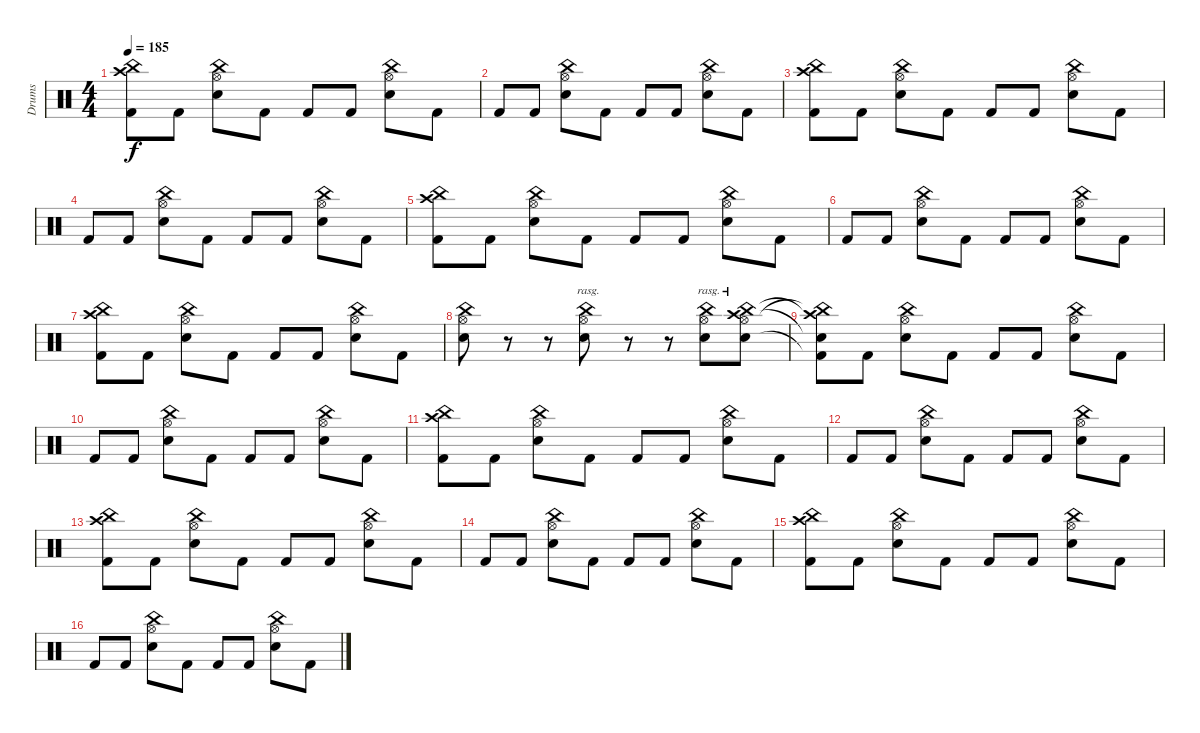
\track ("Drums" "Drums") {instrument percussion}
\staff {score}
\articulation defaults
\ts (4 4)
\tempo 185
\clef neutral
\ks c
("Crash high (hit)" "China (hit)" "Kick (hit) 2").8{dy f} "Kick (hit) 2".8 ("China (hit)" "Hi-Hat (open)" "Snare (hit) 2").8 "Kick (hit) 2".8 "Kick (hit) 2".8 "Kick (hit) 2".8 ("China (hit)" "Hi-Hat (open)" "Snare (hit) 2").8 "Kick (hit) 2".8 |
"Kick (hit) 2".8 "Kick (hit) 2".8 ("China (hit)" "Hi-Hat (open)" "Snare (hit) 2").8 "Kick (hit) 2".8 "Kick (hit) 2".8 "Kick (hit) 2".8 ("China (hit)" "Hi-Hat (open)" "Snare (hit) 2").8 "Kick (hit) 2".8 |
("Crash high (hit)" "China (hit)" "Kick (hit) 2").8 "Kick (hit) 2".8 ("China (hit)" "Hi-Hat (open)" "Snare (hit) 2").8 "Kick (hit) 2".8 "Kick (hit) 2".8 "Kick (hit) 2".8 ("China (hit)" "Hi-Hat (open)" "Snare (hit) 2").8 "Kick (hit) 2".8 |
"Kick (hit) 2".8 "Kick (hit) 2".8 ("China (hit)" "Hi-Hat (open)" "Snare (hit) 2").8 "Kick (hit) 2".8 "Kick (hit) 2".8 "Kick (hit) 2".8 ("China (hit)" "Hi-Hat (open)" "Snare (hit) 2").8 "Kick (hit) 2".8 |
("Crash high (hit)" "China (hit)" "Kick (hit) 2").8 "Kick (hit) 2".8 ("China (hit)" "Hi-Hat (open)" "Snare (hit) 2").8 "Kick (hit) 2".8 "Kick (hit) 2".8 "Kick (hit) 2".8 ("China (hit)" "Hi-Hat (open)" "Snare (hit) 2").8 "Kick (hit) 2".8 |
"Kick (hit) 2".8 "Kick (hit) 2".8 ("China (hit)" "Hi-Hat (open)" "Snare (hit) 2").8 "Kick (hit) 2".8 "Kick (hit) 2".8 "Kick (hit) 2".8 ("China (hit)" "Hi-Hat (open)" "Snare (hit) 2").8 "Kick (hit) 2".8 |
("Crash high (hit)" "China (hit)" "Kick (hit) 2").8 "Kick (hit) 2".8 ("China (hit)" "Hi-Hat (open)" "Snare (hit) 2").8 "Kick (hit) 2".8 "Kick (hit) 2".8 "Kick (hit) 2".8 ("China (hit)" "Hi-Hat (open)" "Snare (hit) 2").8 "Kick (hit) 2".8 |
("China (hit)" "Hi-Hat (open)" "Snare (hit) 2").8 r.8 r.8 ("China (hit)" "Hi-Hat (open)" "Snare (hit) 2").8{bd 120 rasg ii} r.8 r.8 ("China (hit)" "Hi-Hat (open)" "Snare (hit) 2").8{bd 120 rasg ii} ("China (hit)" "Hi-Hat (open)" "Snare (hit) 2" "Crash high (hit)").8{bd 120 rasg ii} |
("Crash high (hit)"{t} "China (hit)"{t} "Kick (hit) 2"{t} "Snare (hit)"{t}).8 "Kick (hit) 2".8 ("China (hit)" "Hi-Hat (open)" "Snare (hit) 2").8 "Kick (hit) 2".8 "Kick (hit) 2".8 "Kick (hit) 2".8 ("China (hit)" "Hi-Hat (open)" "Snare (hit) 2").8 "Kick (hit) 2".8 |
"Kick (hit) 2".8 "Kick (hit) 2".8 ("China (hit)" "Hi-Hat (open)" "Snare (hit) 2").8 "Kick (hit) 2".8 "Kick (hit) 2".8 "Kick (hit) 2".8 ("China (hit)" "Hi-Hat (open)" "Snare (hit) 2").8 "Kick (hit) 2".8 |
("Crash high (hit)" "China (hit)" "Kick (hit) 2").8 "Kick (hit) 2".8 ("China (hit)" "Hi-Hat (open)" "Snare (hit) 2").8 "Kick (hit) 2".8 "Kick (hit) 2".8 "Kick (hit) 2".8 ("China (hit)" "Hi-Hat (open)" "Snare (hit) 2").8 "Kick (hit) 2".8 |
"Kick (hit) 2".8 "Kick (hit) 2".8 ("China (hit)" "Hi-Hat (open)" "Snare (hit) 2").8 "Kick (hit) 2".8 "Kick (hit) 2".8 "Kick (hit) 2".8 ("China (hit)" "Hi-Hat (open)" "Snare (hit) 2").8 "Kick (hit) 2".8 |
("Crash high (hit)" "China (hit)" "Kick (hit) 2").8 "Kick (hit) 2".8 ("China (hit)" "Hi-Hat (open)" "Snare (hit) 2").8 "Kick (hit) 2".8 "Kick (hit) 2".8 "Kick (hit) 2".8 ("China (hit)" "Hi-Hat (open)" "Snare (hit) 2").8 "Kick (hit) 2".8 |
"Kick (hit) 2".8 "Kick (hit) 2".8 ("China (hit)" "Hi-Hat (open)" "Snare (hit) 2").8 "Kick (hit) 2".8 "Kick (hit) 2".8 "Kick (hit) 2".8 ("China (hit)" "Hi-Hat (open)" "Snare (hit) 2").8 "Kick (hit) 2".8 |
("Crash high (hit)" "China (hit)" "Kick (hit) 2").8 "Kick (hit) 2".8 ("China (hit)" "Hi-Hat (open)" "Snare (hit) 2").8 "Kick (hit) 2".8 "Kick (hit) 2".8 "Kick (hit) 2".8 ("China (hit)" "Hi-Hat (open)" "Snare (hit) 2").8 "Kick (hit) 2".8 |
"Kick (hit) 2".8 "Kick (hit) 2".8 ("China (hit)" "Hi-Hat (open)" "Snare (hit) 2").8 "Kick (hit) 2".8 "Kick (hit) 2".8 "Kick (hit) 2".8 ("China (hit)" "Hi-Hat (open)" "Snare (hit) 2").8 "Kick (hit) 2".8
